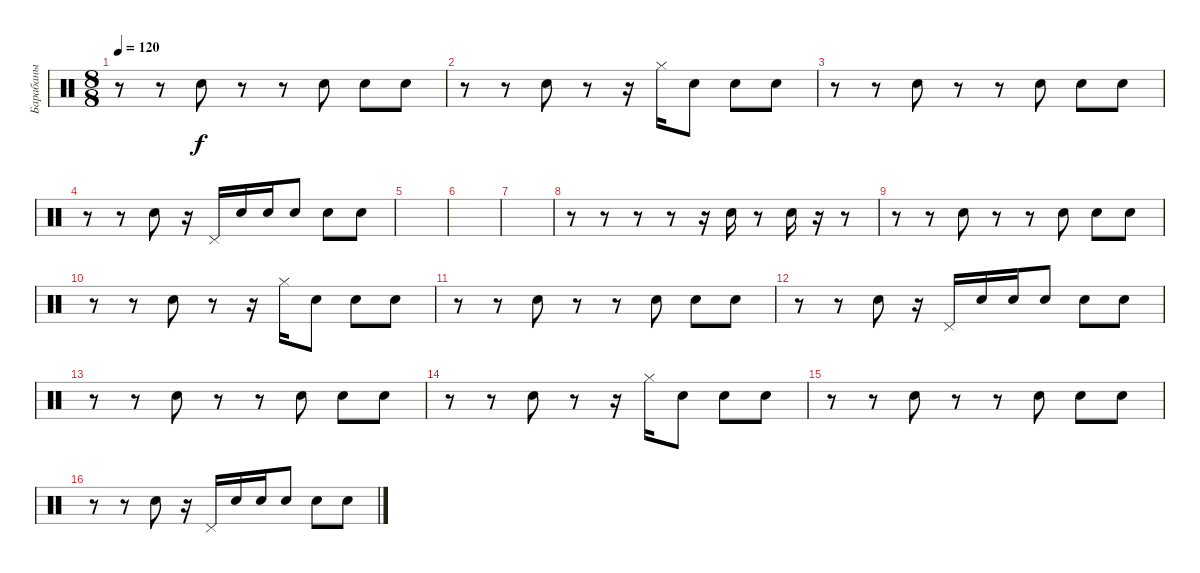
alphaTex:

\track ("Барабаны" "Барабаны") {instrument percussion}
\staff {score}
\articulation defaults
\ts (8 8)
\tempo 120
\clef neutral
\ks c
r.8{dy f} r.8 "Electric Snare (hit)".8 r.8 r.8 "Electric Snare (hit)".8 "Hand Clap (hit)".8 "Electric Snare (hit)".8 |
r.8 r.8 "Electric Snare (hit)".8 r.8 r.16 "Hi-Hat (closed)".16 "Electric Snare (hit)".8 "Hand Clap (hit)".8 "Electric Snare (hit)".8 |
r.8 r.8 "Electric Snare (hit)".8 r.8 r.8 "Electric Snare (hit)".8 "Hand Clap (hit)".8 "Electric Snare (hit)".8 |
r.8 r.8 "Electric Snare (hit)".8 r.16 "Pedal Hi-Hat (hit)".16 "Electric Snare (hit)".16 "Electric Snare (hit)".16 "Electric Snare (hit)".8 "Hand Clap (hit)".8 "Electric Snare (hit)".8 |
|
|
|
r.8 r.8 r.8 r.8 r.16 "Electric Snare (hit)".16 r.8 "Electric Snare (hit)".16 r.16 r.8 |
r.8 r.8 "Electric Snare (hit)".8 r.8 r.8 "Electric Snare (hit)".8 "Hand Clap (hit)".8 "Electric Snare (hit)".8 |
r.8 r.8 "Electric Snare (hit)".8 r.8 r.16 "Hi-Hat (closed)".16 "Electric Snare (hit)".8 "Hand Clap (hit)".8 "Electric Snare (hit)".8 |
r.8 r.8 "Electric Snare (hit)".8 r.8 r.8 "Electric Snare (hit)".8 "Hand Clap (hit)".8 "Electric Snare (hit)".8 |
r.8 r.8 "Electric Snare (hit)".8 r.16 "Pedal Hi-Hat (hit)".16 "Electric Snare (hit)".16 "Electric Snare (hit)".16 "Electric Snare (hit)".8 "Hand Clap (hit)".8 "Electric Snare (hit)".8 |
r.8 r.8 "Electric Snare (hit)".8 r.8 r.8 "Electric Snare (hit)".8 "Hand Clap (hit)".8 "Electric Snare (hit)".8 |
r.8 r.8 "Electric Snare (hit)".8 r.8 r.16 "Hi-Hat (closed)".16 "Electric Snare (hit)".8 "Hand Clap (hit)".8 "Electric Snare (hit)".8 |
r.8 r.8 "Electric Snare (hit)".8 r.8 r.8 "Electric Snare (hit)".8 "Hand Clap (hit)".8 "Electric Snare (hit)".8 |
r.8 r.8 "Electric Snare (hit)".8 r.16 "Pedal Hi-Hat (hit)".16 "Electric Snare (hit)".16 "Electric Snare (hit)".16 "Electric Snare (hit)".8 "Hand Clap (hit)".8 "Electric Snare (hit)".8
